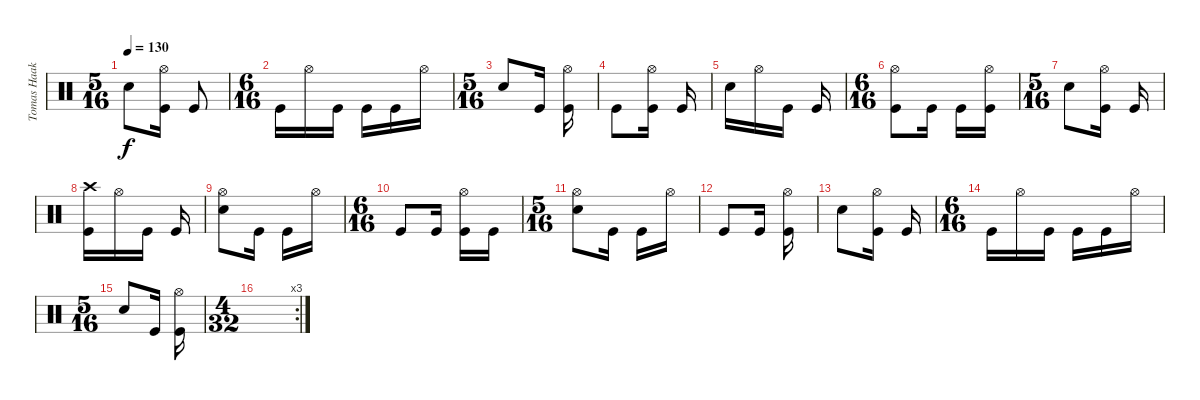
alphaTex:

\track ("Tomas Haake - Drums" "Tomas Haak") {instrument percussion}
\staff {score}
\articulation defaults
\ts (5 16)
\tempo 130
\clef neutral
\ks c "Electric Snare (hit)".8{dy f}
("Hi-Hat (open)" "Kick (hit)").16 "Kick (hit)".8 |
\ts (6 16)
"Kick (hit)".16 "Hi-Hat (open)".16 "Kick (hit)".16 "Kick (hit)".16 "Kick (hit)".16 "Hi-Hat (open)".16 |
\ts (5 16)
"Electric Snare (hit)".8 "Kick (hit)".16 ("Hi-Hat (open)" "Kick (hit)").16 |
"Kick (hit)".8 ("Hi-Hat (open)" "Kick (hit)").16 "Kick (hit)".16 |
"Electric Snare (hit)".16 "Hi-Hat (open)".16 "Kick (hit)".16 "Kick (hit)".16 |
\ts (6 16)
("Hi-Hat (open)" "Kick (hit)").8 "Kick (hit)".16 "Kick (hit)".16 ("Hi-Hat (open)" "Kick (hit)").16 |
\ts (5 16)
"Electric Snare (hit)".8 ("Hi-Hat (open)" "Kick (hit)").16 "Kick (hit)".16 |
("Crash high (hit)" "Kick (hit)").16 "Hi-Hat (open)".16 "Kick (hit)".16 "Kick (hit)".16 |
("Hi-Hat (open)" "Electric Snare (hit)").8 "Kick (hit)".16 "Kick (hit)".16 "Hi-Hat (open)".16 |
\ts (6 16)
"Kick (hit)".8 "Kick (hit)".16 ("Hi-Hat (open)" "Kick (hit)").16 "Kick (hit)".16 |
\ts (5 16)
("Electric Snare (hit)" "Hi-Hat (open)").8 "Kick (hit)".16 "Kick (hit)".16 "Hi-Hat (open)".16 |
"Kick (hit)".8 "Kick (hit)".16 ("Hi-Hat (open)" "Kick (hit)").16 |
"Electric Snare (hit)".8 ("Hi-Hat (open)" "Kick (hit)").16 "Kick (hit)".16 |
\ts (6 16)
"Kick (hit)".16 "Hi-Hat (open)".16 "Kick (hit)".16 "Kick (hit)".16 "Kick (hit)".16 "Hi-Hat (open)".16 |
\ts (5 16)
"Electric Snare (hit)".8 "Kick (hit)".16 ("Hi-Hat (open)" "Kick (hit)").16 |
\rc 3
\ts (4 32)
